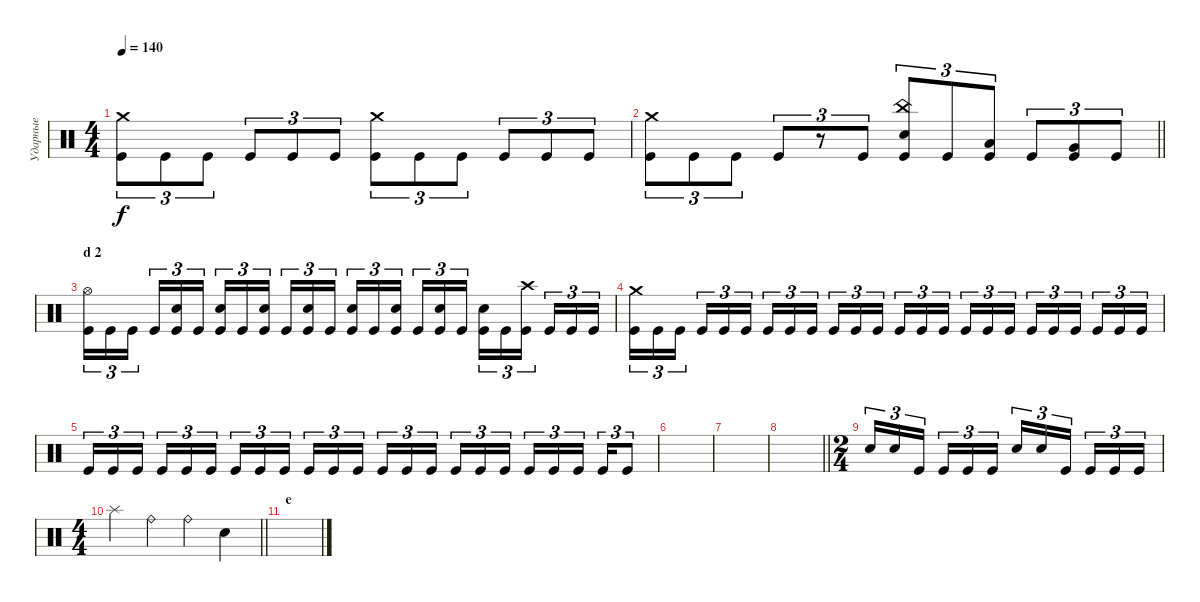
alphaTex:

\track ("Ударные" "Ударные") {instrument percussion}
\staff {score}
\articulation defaults
\ts (4 4)
\tempo 140
\clef neutral
\ks c
("Crash medium (hit)" "Kick (hit)").8{tu (3 2) dy f} "Kick (hit)".8{tu (3 2)} "Kick (hit)".8{tu (3 2)} "Kick (hit)".8{tu (3 2)} "Kick (hit)".8{tu (3 2)} "Kick (hit)".8{tu (3 2)} ("Crash medium (hit)" "Kick (hit)").8{tu (3 2)} "Kick (hit)".8{tu (3 2)} "Kick (hit)".8{tu (3 2)} "Kick (hit)".8{tu (3 2)} "Kick (hit)".8{tu (3 2)} "Kick (hit)".8{tu (3 2)} |
\barLineRight lightlight
("Crash medium (hit)" "Kick (hit)").8{tu (3 2)} "Kick (hit)".8{tu (3 2)} "Kick (hit)".8{tu (3 2)} "Kick (hit)".8{tu (3 2)} r.8{tu (3 2)} "Kick (hit)".8{tu (3 2)} ("China (hit)" "Electric Snare (hit)" "Kick (hit)").8{tu (3 2)} "Kick (hit)".8{tu (3 2)} ("Low Tom (hit)" "Kick (hit)").8{tu (3 2)} "Kick (hit)".8{tu (3 2)} ("Very Low Tom (hit)" "Kick (hit)").8{tu (3 2)} "Kick (hit)".8{tu (3 2)} |
\section ("" "d 2")
("Hi-Hat (open)" "Kick (hit)").16{tu (3 2)} "Kick (hit)".16{tu (3 2)} "Kick (hit)".16{tu (3 2) beam splitsecondary} "Kick (hit)".16{tu (3 2)} ("Electric Snare (hit)" "Kick (hit)").16{tu (3 2)} "Kick (hit)".16{tu (3 2)} ("Electric Snare (hit)" "Kick (hit)").16{tu (3 2)} "Kick (hit)".16{tu (3 2)} ("Electric Snare (hit)" "Kick (hit)").16{tu (3 2) beam splitsecondary} "Kick (hit)".16{tu (3 2)} ("Electric Snare (hit)" "Kick (hit)").16{tu (3 2)} "Kick (hit)".16{tu (3 2)} ("Electric Snare (hit)" "Kick (hit)").16{tu (3 2)} "Kick (hit)".16{tu (3 2)} ("Electric Snare (hit)" "Kick (hit)").16{tu (3 2) beam splitsecondary} "Kick (hit)".16{tu (3 2)} ("Electric Snare (hit)" "Kick (hit)").16{tu (3 2)} "Kick (hit)".16{tu (3 2)} ("Electric Snare (hit)" "Kick (hit)").16{tu (3 2)} "Kick (hit)".16{tu (3 2)} ("Crash high (hit)" "Kick (hit)").16{tu (3 2) beam splitsecondary} "Kick (hit)".16{tu (3 2)} "Kick (hit)".16{tu (3 2)} "Kick (hit)".16{tu (3 2)} |
("Crash medium (hit)" "Kick (hit)").16{tu (3 2)} "Kick (hit)".16{tu (3 2)} "Kick (hit)".16{tu (3 2) beam splitsecondary} "Kick (hit)".16{tu (3 2)} "Kick (hit)".16{tu (3 2)} "Kick (hit)".16{tu (3 2)} "Kick (hit)".16{tu (3 2)} "Kick (hit)".16{tu (3 2)} "Kick (hit)".16{tu (3 2) beam splitsecondary} "Kick (hit)".16{tu (3 2)} "Kick (hit)".16{tu (3 2)} "Kick (hit)".16{tu (3 2)} "Kick (hit)".16{tu (3 2)} "Kick (hit)".16{tu (3 2)} "Kick (hit)".16{tu (3 2) beam splitsecondary} "Kick (hit)".16{tu (3 2)} "Kick (hit)".16{tu (3 2)} "Kick (hit)".16{tu (3 2)} "Kick (hit)".16{tu (3 2)} "Kick (hit)".16{tu (3 2)} "Kick (hit)".16{tu (3 2) beam splitsecondary} "Kick (hit)".16{tu (3 2)} "Kick (hit)".16{tu (3 2)} "Kick (hit)".16{tu (3 2)} |
"Kick (hit)".16{tu (3 2)} "Kick (hit)".16{tu (3 2)} "Kick (hit)".16{tu (3 2) beam splitsecondary} "Kick (hit)".16{tu (3 2)} "Kick (hit)".16{tu (3 2)} "Kick (hit)".16{tu (3 2)} "Kick (hit)".16{tu (3 2)} "Kick (hit)".16{tu (3 2)} "Kick (hit)".16{tu (3 2) beam splitsecondary} "Kick (hit)".16{tu (3 2)} "Kick (hit)".16{tu (3 2)} "Kick (hit)".16{tu (3 2)} "Kick (hit)".16{tu (3 2)} "Kick (hit)".16{tu (3 2)} "Kick (hit)".16{tu (3 2) beam splitsecondary} "Kick (hit)".16{tu (3 2)} "Kick (hit)".16{tu (3 2)} "Kick (hit)".16{tu (3 2)} "Kick (hit)".16{tu (3 2)} "Kick (hit)".16{tu (3 2)} "Kick (hit)".16{tu (3 2) beam splitsecondary} "Kick (hit)".16{tu (3 2)} "Kick (hit)".8{tu (3 2)} |
|
|
\barLineRight lightlight
|
\ts (2 4)
\section ("" " ")
"Electric Snare (hit)".16{tu (3 2)} "Electric Snare (hit)".16{tu (3 2)} "Kick (hit)".16{tu (3 2) beam splitsecondary} "Kick (hit)".16{tu (3 2)} "Kick (hit)".16{tu (3 2)} "Kick (hit)".16{tu (3 2)} "Electric Snare (hit)".16{tu (3 2)} "Electric Snare (hit)".16{tu (3 2)} "Kick (hit)".16{tu (3 2) beam splitsecondary} "Kick (hit)".16{tu (3 2)} "Kick (hit)".16{tu (3 2)} "Kick (hit)".16{tu (3 2)} |
\ts (4 4)
\barLineRight lightlight "Splash (hit)".4 "Ride (bell)".4 "Ride (bell)".4 "Electric Snare (hit)".4
|
\section ("" "e")
